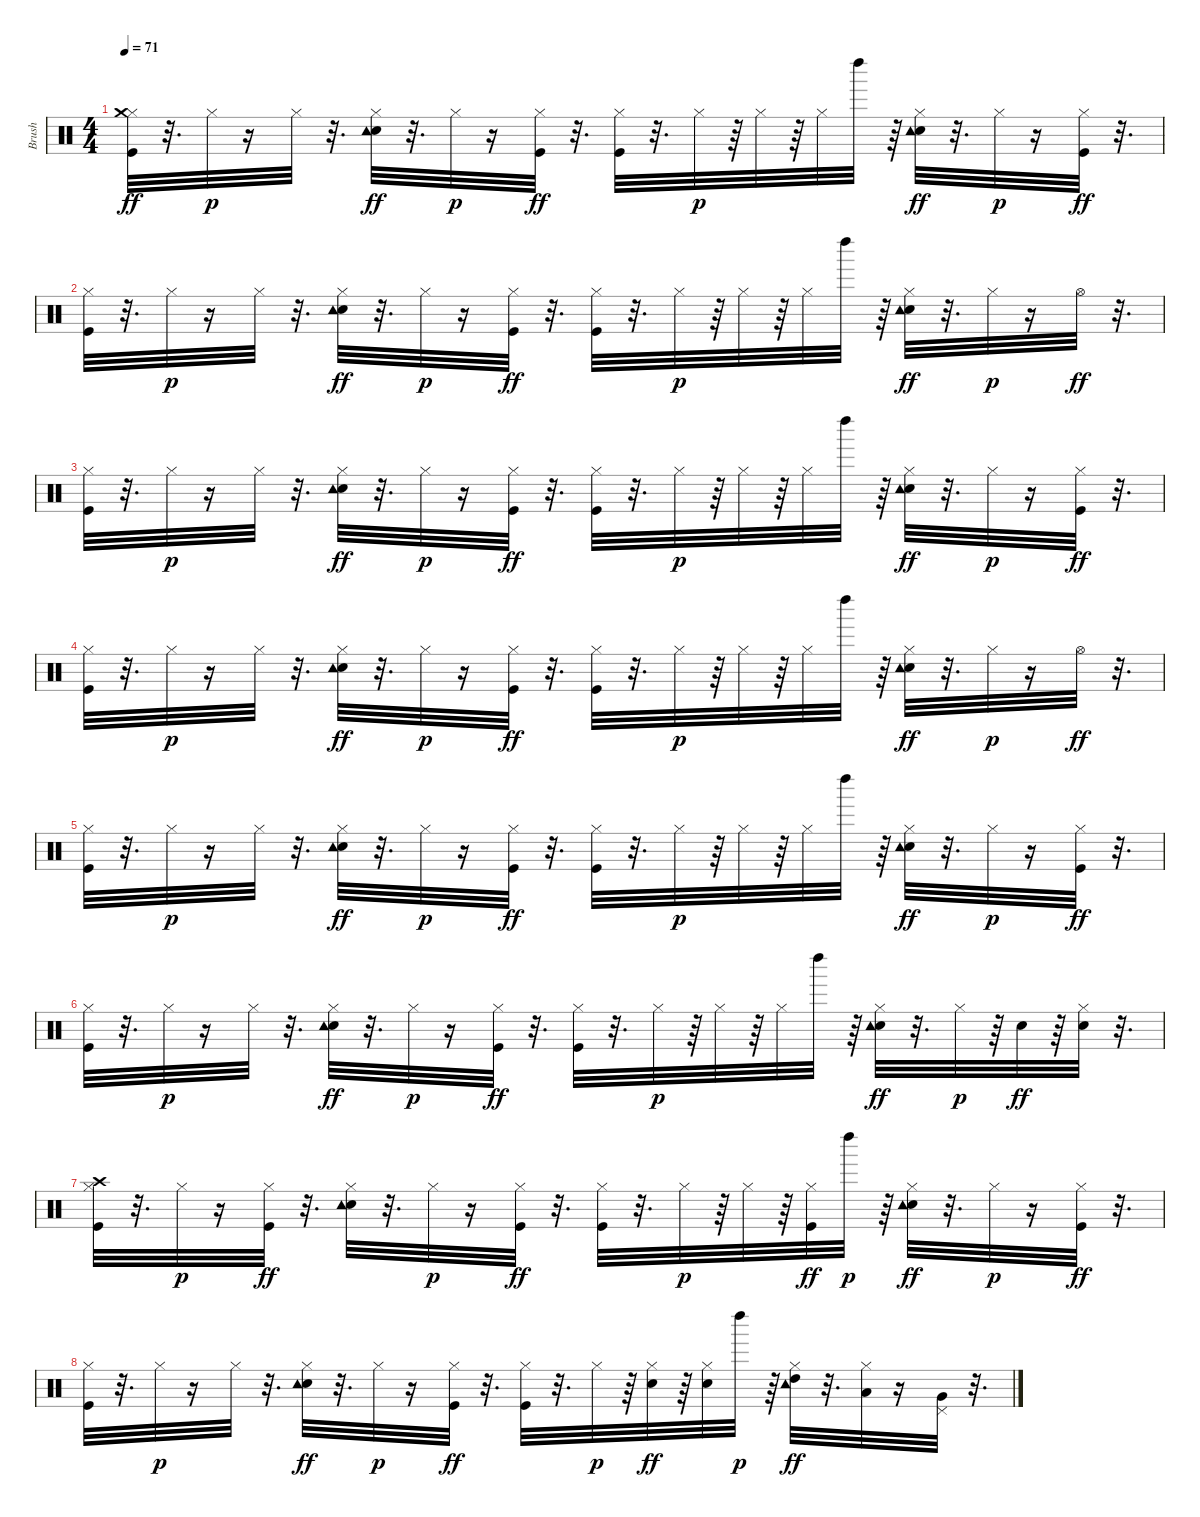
\track ("Brush               " "Brush     ") {instrument percussion}
\staff {score}
\articulation defaults
\ts (4 4)
\tempo 71
\clef neutral
\ks c
("Hi-Hat (closed)" "Kick (hit)" "Crash medium (hit)").32{dy ff} r.32{d} "Hi-Hat (closed)".32{dy p} r.16 "Hi-Hat (closed)".32 r.32{d} ("Hi-Hat (closed)" "Snare (hit) 2" "Tambourine (hit)").32{dy ff} r.32{d} "Hi-Hat (closed)".32{dy p} r.16 ("Hi-Hat (closed)" "Kick (hit)").32{dy ff} r.32{d} ("Hi-Hat (closed)" "Kick (hit)").32 r.32{d} "Hi-Hat (closed)".32{dy p} r.64 "Hi-Hat (closed)".32 r.64 "Hi-Hat (closed)".32 "Left Maraca (hit)".32 r.64 ("Hi-Hat (closed)" "Snare (hit) 2" "Tambourine (hit)").32{dy ff} r.32{d} "Hi-Hat (closed)".32{dy p} r.16 ("Hi-Hat (closed)" "Kick (hit)").32{dy ff} r.32{d} |
("Hi-Hat (closed)" "Kick (hit)").32 r.32{d} "Hi-Hat (closed)".32{dy p} r.16 "Hi-Hat (closed)".32 r.32{d} ("Hi-Hat (closed)" "Snare (hit) 2" "Tambourine (hit)").32{dy ff} r.32{d} "Hi-Hat (closed)".32{dy p} r.16 ("Hi-Hat (closed)" "Kick (hit)").32{dy ff} r.32{d} ("Hi-Hat (closed)" "Kick (hit)").32 r.32{d} "Hi-Hat (closed)".32{dy p} r.64 "Hi-Hat (closed)".32 r.64 "Hi-Hat (closed)".32 "Left Maraca (hit)".32 r.64 ("Hi-Hat (closed)" "Snare (hit) 2" "Tambourine (hit)").32{dy ff} r.32{d} "Hi-Hat (closed)".32{dy p} r.16 "Hi-Hat (open)".32{dy ff} r.32{d} |
("Hi-Hat (closed)" "Kick (hit)").32 r.32{d} "Hi-Hat (closed)".32{dy p} r.16 "Hi-Hat (closed)".32 r.32{d} ("Hi-Hat (closed)" "Snare (hit) 2" "Tambourine (hit)").32{dy ff} r.32{d} "Hi-Hat (closed)".32{dy p} r.16 ("Hi-Hat (closed)" "Kick (hit)").32{dy ff} r.32{d} ("Hi-Hat (closed)" "Kick (hit)").32 r.32{d} "Hi-Hat (closed)".32{dy p} r.64 "Hi-Hat (closed)".32 r.64 "Hi-Hat (closed)".32 "Left Maraca (hit)".32 r.64 ("Hi-Hat (closed)" "Snare (hit) 2" "Tambourine (hit)").32{dy ff} r.32{d} "Hi-Hat (closed)".32{dy p} r.16 ("Hi-Hat (closed)" "Kick (hit)").32{dy ff} r.32{d} |
("Hi-Hat (closed)" "Kick (hit)").32 r.32{d} "Hi-Hat (closed)".32{dy p} r.16 "Hi-Hat (closed)".32 r.32{d} ("Hi-Hat (closed)" "Snare (hit) 2" "Tambourine (hit)").32{dy ff} r.32{d} "Hi-Hat (closed)".32{dy p} r.16 ("Hi-Hat (closed)" "Kick (hit)").32{dy ff} r.32{d} ("Hi-Hat (closed)" "Kick (hit)").32 r.32{d} "Hi-Hat (closed)".32{dy p} r.64 "Hi-Hat (closed)".32 r.64 "Hi-Hat (closed)".32 "Left Maraca (hit)".32 r.64 ("Hi-Hat (closed)" "Snare (hit) 2" "Tambourine (hit)").32{dy ff} r.32{d} "Hi-Hat (closed)".32{dy p} r.16 "Hi-Hat (open)".32{dy ff} r.32{d} |
("Hi-Hat (closed)" "Kick (hit)").32 r.32{d} "Hi-Hat (closed)".32{dy p} r.16 "Hi-Hat (closed)".32 r.32{d} ("Hi-Hat (closed)" "Snare (hit) 2" "Tambourine (hit)").32{dy ff} r.32{d} "Hi-Hat (closed)".32{dy p} r.16 ("Hi-Hat (closed)" "Kick (hit)").32{dy ff} r.32{d} ("Hi-Hat (closed)" "Kick (hit)").32 r.32{d} "Hi-Hat (closed)".32{dy p} r.64 "Hi-Hat (closed)".32 r.64 "Hi-Hat (closed)".32 "Left Maraca (hit)".32 r.64 ("Hi-Hat (closed)" "Snare (hit) 2" "Tambourine (hit)").32{dy ff} r.32{d} "Hi-Hat (closed)".32{dy p} r.16 ("Hi-Hat (closed)" "Kick (hit)").32{dy ff} r.32{d} |
("Hi-Hat (closed)" "Kick (hit)").32 r.32{d} "Hi-Hat (closed)".32{dy p} r.16 "Hi-Hat (closed)".32 r.32{d} ("Hi-Hat (closed)" "Snare (hit) 2" "Tambourine (hit)").32{dy ff} r.32{d} "Hi-Hat (closed)".32{dy p} r.16 ("Hi-Hat (closed)" "Kick (hit)").32{dy ff} r.32{d} ("Hi-Hat (closed)" "Kick (hit)").32 r.32{d} "Hi-Hat (closed)".32{dy p} r.64 "Hi-Hat (closed)".32 r.64 "Hi-Hat (closed)".32 "Left Maraca (hit)".32 r.64 ("Hi-Hat (closed)" "Snare (hit) 2" "Tambourine (hit)").32{dy ff} r.32{d} "Hi-Hat (closed)".32{dy p} r.64 "Snare (hit) 2".32{dy ff} r.64 ("Hi-Hat (closed)" "Snare (hit) 2").32 r.32{d} |
("Hi-Hat (closed)" "Kick (hit)" "Crash high (hit)").32 r.32{d} "Hi-Hat (closed)".32{dy p} r.16 ("Hi-Hat (closed)" "Kick (hit)").32{dy ff} r.32{d} ("Hi-Hat (closed)" "Snare (hit) 2" "Tambourine (hit)").32 r.32{d} "Hi-Hat (closed)".32{dy p} r.16 ("Hi-Hat (closed)" "Kick (hit)").32{dy ff} r.32{d} ("Hi-Hat (closed)" "Kick (hit)").32 r.32{d} "Hi-Hat (closed)".32{dy p} r.64 "Hi-Hat (closed)".32 r.64 ("Hi-Hat (closed)" "Kick (hit)").32{dy ff} "Left Maraca (hit)".32{dy p} r.64 ("Hi-Hat (closed)" "Snare (hit) 2" "Tambourine (hit)").32{dy ff} r.32{d} "Hi-Hat (closed)".32{dy p} r.16 ("Hi-Hat (closed)" "Kick (hit)").32{dy ff} r.32{d} |
("Hi-Hat (closed)" "Kick (hit)").32 r.32{d} "Hi-Hat (closed)".32{dy p} r.16 "Hi-Hat (closed)".32 r.32{d} ("Hi-Hat (closed)" "Snare (hit) 2" "Tambourine (hit)").32{dy ff} r.32{d} "Hi-Hat (closed)".32{dy p} r.16 ("Hi-Hat (closed)" "Kick (hit)").32{dy ff} r.32{d} ("Hi-Hat (closed)" "Kick (hit)").32 r.32{d} "Hi-Hat (closed)".32{dy p} r.64 ("Hi-Hat (closed)" "Snare (hit) 2").32{dy ff} r.64 ("Hi-Hat (closed)" "Snare (hit) 2").32 "Left Maraca (hit)".32{dy p} r.64 ("Hi-Hat (closed)" "Tambourine (hit)" "High Tom (hit)").32{dy ff} r.32{d} ("Hi-Hat (closed)" "Low Tom (hit)").32 r.16 ("Very Low Tom (hit)" "Pedal Hi-Hat (hit)").32 r.32{d}
